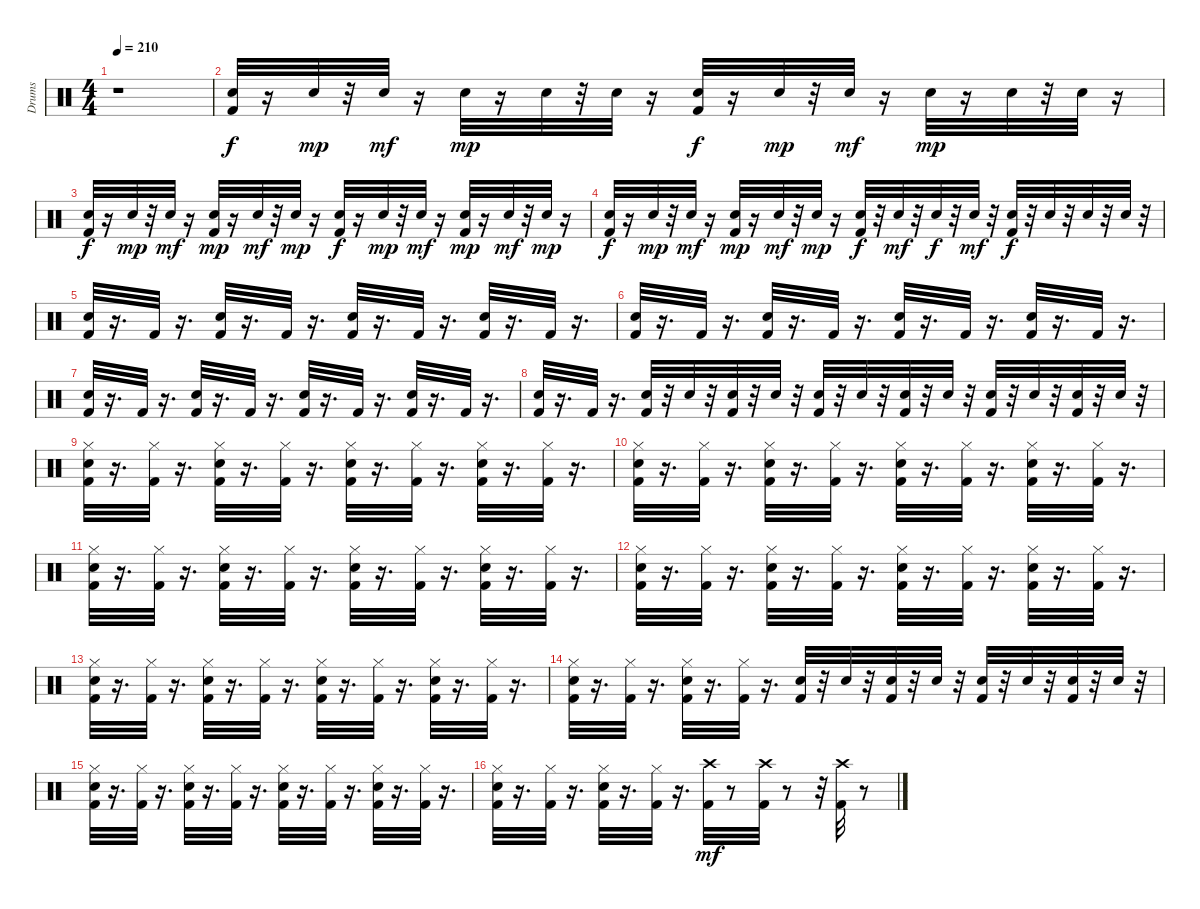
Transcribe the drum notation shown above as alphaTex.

\track ("Drums" "Drums") {instrument percussion}
\staff {score}
\articulation defaults
\ts (4 4)
\tempo 210
\clef neutral
\ks c
r.1{dy f} |
("Kick (hit) 2" "Snare (hit) 2").32 r.16 "Snare (hit) 2".32{dy mp} r.32 "Snare (hit) 2".32{dy mf} r.16 "Snare (hit) 2".32{dy mp} r.16 "Snare (hit) 2".32 r.32 "Snare (hit) 2".32 r.16 ("Kick (hit) 2" "Snare (hit) 2").32{dy f} r.16 "Snare (hit) 2".32{dy mp} r.32 "Snare (hit) 2".32{dy mf} r.16 "Snare (hit) 2".32{dy mp} r.16 "Snare (hit) 2".32 r.32 "Snare (hit) 2".32 r.16 |
("Kick (hit) 2" "Snare (hit) 2").32{dy f} r.16 "Snare (hit) 2".32{dy mp} r.32 "Snare (hit) 2".32{dy mf} r.16 ("Kick (hit) 2" "Snare (hit) 2").32{dy mp} r.16 "Snare (hit) 2".32{dy mf} r.32 "Snare (hit) 2".32{dy mp} r.16 ("Kick (hit) 2" "Snare (hit) 2").32{dy f} r.16 "Snare (hit) 2".32{dy mp} r.32 "Snare (hit) 2".32{dy mf} r.16 ("Kick (hit) 2" "Snare (hit) 2").32{dy mp} r.16 "Snare (hit) 2".32{dy mf} r.32 "Snare (hit) 2".32{dy mp} r.16 |
("Kick (hit) 2" "Snare (hit) 2").32{dy f} r.16 "Snare (hit) 2".32{dy mp} r.32 "Snare (hit) 2".32{dy mf} r.16 ("Kick (hit) 2" "Snare (hit) 2").32{dy mp} r.16 "Snare (hit) 2".32{dy mf} r.32 "Snare (hit) 2".32{dy mp} r.16 ("Kick (hit) 2" "Snare (hit) 2").32{dy f} r.32 "Snare (hit) 2".32{dy mf} r.32 "Snare (hit) 2".32{dy f} r.32 "Snare (hit) 2".32{dy mf} r.32 ("Kick (hit) 2" "Snare (hit) 2").32{dy f} r.32 "Snare (hit) 2".32 r.32 "Snare (hit) 2".32 r.32 "Snare (hit) 2".32 r.32 |
("Kick (hit) 2" "Snare (hit) 2").32 r.16{d} "Kick (hit) 2".32 r.16{d} ("Kick (hit) 2" "Snare (hit) 2").32 r.16{d} "Kick (hit) 2".32 r.16{d} ("Kick (hit) 2" "Snare (hit) 2").32 r.16{d} "Kick (hit) 2".32 r.16{d} ("Kick (hit) 2" "Snare (hit) 2").32 r.16{d} "Kick (hit) 2".32 r.16{d} |
("Kick (hit) 2" "Snare (hit) 2").32 r.16{d} "Kick (hit) 2".32 r.16{d} ("Kick (hit) 2" "Snare (hit) 2").32 r.16{d} "Kick (hit) 2".32 r.16{d} ("Kick (hit) 2" "Snare (hit) 2").32 r.16{d} "Kick (hit) 2".32 r.16{d} ("Kick (hit) 2" "Snare (hit) 2").32 r.16{d} "Kick (hit) 2".32 r.16{d} |
("Kick (hit) 2" "Snare (hit) 2").32 r.16{d} "Kick (hit) 2".32 r.16{d} ("Kick (hit) 2" "Snare (hit) 2").32 r.16{d} "Kick (hit) 2".32 r.16{d} ("Kick (hit) 2" "Snare (hit) 2").32 r.16{d} "Kick (hit) 2".32 r.16{d} ("Kick (hit) 2" "Snare (hit) 2").32 r.16{d} "Kick (hit) 2".32 r.16{d} |
("Kick (hit) 2" "Snare (hit) 2").32 r.16{d} "Kick (hit) 2".32 r.16{d} ("Kick (hit) 2" "Snare (hit) 2").32 r.32 "Snare (hit) 2".32 r.32 ("Kick (hit) 2" "Snare (hit) 2").32 r.32 "Snare (hit) 2".32 r.32 ("Kick (hit) 2" "Snare (hit) 2").32 r.32 "Snare (hit) 2".32 r.32 ("Kick (hit) 2" "Snare (hit) 2").32 r.32 "Snare (hit) 2".32 r.32 ("Kick (hit) 2" "Snare (hit) 2").32 r.32 "Snare (hit) 2".32 r.32 ("Kick (hit) 2" "Snare (hit) 2").32 r.32 "Snare (hit) 2".32 r.32 |
("Kick (hit) 2" "Snare (hit) 2" "Hi-Hat (closed)").32 r.16{d} ("Kick (hit) 2" "Hi-Hat (closed)").32 r.16{d} ("Kick (hit) 2" "Snare (hit) 2" "Hi-Hat (closed)").32 r.16{d} ("Kick (hit) 2" "Hi-Hat (closed)").32 r.16{d} ("Kick (hit) 2" "Snare (hit) 2" "Hi-Hat (closed)").32 r.16{d} ("Kick (hit) 2" "Hi-Hat (closed)").32 r.16{d} ("Kick (hit) 2" "Snare (hit) 2" "Hi-Hat (closed)").32 r.16{d} ("Kick (hit) 2" "Hi-Hat (closed)").32 r.16{d} |
("Kick (hit) 2" "Snare (hit) 2" "Hi-Hat (closed)").32 r.16{d} ("Kick (hit) 2" "Hi-Hat (closed)").32 r.16{d} ("Kick (hit) 2" "Snare (hit) 2" "Hi-Hat (closed)").32 r.16{d} ("Kick (hit) 2" "Hi-Hat (closed)").32 r.16{d} ("Kick (hit) 2" "Snare (hit) 2" "Hi-Hat (closed)").32 r.16{d} ("Kick (hit) 2" "Hi-Hat (closed)").32 r.16{d} ("Kick (hit) 2" "Snare (hit) 2" "Hi-Hat (closed)").32 r.16{d} ("Kick (hit) 2" "Hi-Hat (closed)").32 r.16{d} |
("Kick (hit) 2" "Snare (hit) 2" "Hi-Hat (closed)").32 r.16{d} ("Kick (hit) 2" "Hi-Hat (closed)").32 r.16{d} ("Kick (hit) 2" "Snare (hit) 2" "Hi-Hat (closed)").32 r.16{d} ("Kick (hit) 2" "Hi-Hat (closed)").32 r.16{d} ("Kick (hit) 2" "Snare (hit) 2" "Hi-Hat (closed)").32 r.16{d} ("Kick (hit) 2" "Hi-Hat (closed)").32 r.16{d} ("Kick (hit) 2" "Snare (hit) 2" "Hi-Hat (closed)").32 r.16{d} ("Kick (hit) 2" "Hi-Hat (closed)").32 r.16{d} |
("Kick (hit) 2" "Snare (hit) 2" "Hi-Hat (closed)").32 r.16{d} ("Kick (hit) 2" "Hi-Hat (closed)").32 r.16{d} ("Kick (hit) 2" "Snare (hit) 2" "Hi-Hat (closed)").32 r.16{d} ("Kick (hit) 2" "Hi-Hat (closed)").32 r.16{d} ("Kick (hit) 2" "Snare (hit) 2" "Hi-Hat (closed)").32 r.16{d} ("Kick (hit) 2" "Hi-Hat (closed)").32 r.16{d} ("Kick (hit) 2" "Snare (hit) 2" "Hi-Hat (closed)").32 r.16{d} ("Kick (hit) 2" "Hi-Hat (closed)").32 r.16{d} |
("Kick (hit) 2" "Snare (hit) 2" "Hi-Hat (closed)").32 r.16{d} ("Kick (hit) 2" "Hi-Hat (closed)").32 r.16{d} ("Kick (hit) 2" "Snare (hit) 2" "Hi-Hat (closed)").32 r.16{d} ("Kick (hit) 2" "Hi-Hat (closed)").32 r.16{d} ("Kick (hit) 2" "Snare (hit) 2" "Hi-Hat (closed)").32 r.16{d} ("Kick (hit) 2" "Hi-Hat (closed)").32 r.16{d} ("Kick (hit) 2" "Snare (hit) 2" "Hi-Hat (closed)").32 r.16{d} ("Kick (hit) 2" "Hi-Hat (closed)").32 r.16{d} |
("Kick (hit) 2" "Snare (hit) 2" "Hi-Hat (closed)").32 r.16{d} ("Kick (hit) 2" "Hi-Hat (closed)").32 r.16{d} ("Kick (hit) 2" "Snare (hit) 2" "Hi-Hat (closed)").32 r.16{d} ("Kick (hit) 2" "Hi-Hat (closed)").32 r.16{d} ("Kick (hit) 2" "Snare (hit) 2").32 r.32 "Snare (hit) 2".32 r.32 ("Kick (hit) 2" "Snare (hit) 2").32 r.32 "Snare (hit) 2".32 r.32 ("Kick (hit) 2" "Snare (hit) 2").32 r.32 "Snare (hit) 2".32 r.32 ("Kick (hit) 2" "Snare (hit) 2").32 r.32 "Snare (hit) 2".32 r.32 |
("Kick (hit) 2" "Snare (hit) 2" "Hi-Hat (closed)").32 r.16{d} ("Kick (hit) 2" "Hi-Hat (closed)").32 r.16{d} ("Kick (hit) 2" "Snare (hit) 2" "Hi-Hat (closed)").32 r.16{d} ("Kick (hit) 2" "Hi-Hat (closed)").32 r.16{d} ("Kick (hit) 2" "Snare (hit) 2" "Hi-Hat (closed)").32 r.16{d} ("Kick (hit) 2" "Hi-Hat (closed)").32 r.16{d} ("Kick (hit) 2" "Snare (hit) 2" "Hi-Hat (closed)").32 r.16{d} ("Kick (hit) 2" "Hi-Hat (closed)").32 r.16{d} |
("Kick (hit) 2" "Snare (hit) 2" "Hi-Hat (closed)").32 r.16{d} ("Kick (hit) 2" "Hi-Hat (closed)").32 r.16{d} ("Kick (hit) 2" "Snare (hit) 2" "Hi-Hat (closed)").32 r.16{d} ("Kick (hit) 2" "Hi-Hat (closed)").32 r.16{d} ("Kick (hit) 2" "Crash high (hit)").32{dy mf} r.8 ("Kick (hit) 2" "Crash high (hit)").32 r.8 r.32 ("Kick (hit) 2" "Crash high (hit)").32 r.8
